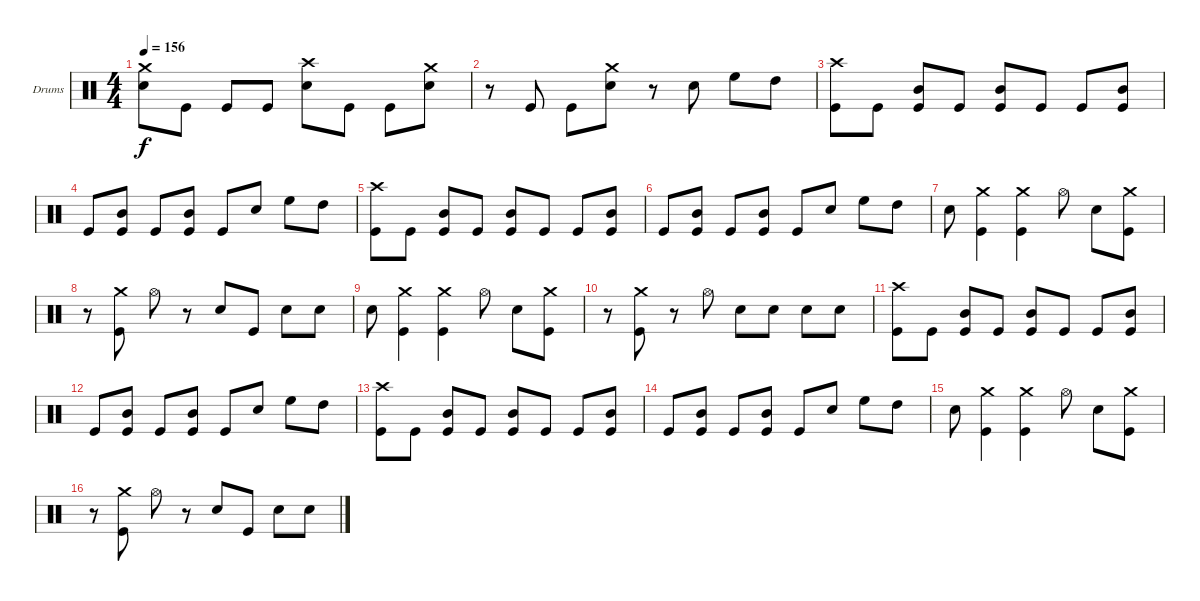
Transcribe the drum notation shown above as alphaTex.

\defaultSystemsLayout 4
\bracketExtendMode groupsimilarinstruments
\firstSystemTrackNameOrientation horizontal
\otherSystemsTrackNameOrientation horizontal
\track ("Anton Kubrak" "Drums") {instrument percussion}
\staff {score}
\articulation defaults
\ts (4 4)
\tempo 156
\clef neutral
\scale
0.333333
\ks c
("Crash medium (hit)" "Snare (hit) 2").8{dy f} "Kick (hit)".8 "Kick (hit)".8 "Kick (hit)".8 ("Crash high (hit)" "Snare (hit) 2").8 "Kick (hit)".8 "Kick (hit)".8 ("Crash medium (hit)" "Snare (hit) 2").8 |
\scale
0.333333 r.8 "Kick (hit)".8 "Kick (hit)".8 ("Crash medium (hit)" "Snare (hit) 2").8 r.8 "Snare (hit) 2".8 "High Floor Tom (hit)".8 "High Tom (hit)".8 |
\scale
0.333333 ("Crash high (hit)" "Kick (hit)").8 "Kick (hit)".8 ("Mid Tom (hit)" "Kick (hit)").8 "Kick (hit)".8 ("Mid Tom (hit)" "Kick (hit)").8 "Kick (hit)".8 "Kick (hit)".8 ("Mid Tom (hit)" "Kick (hit)").8 |
\scale
0.333333 "Kick (hit)".8 ("Mid Tom (hit)" "Kick (hit)").8 "Kick (hit)".8 ("Mid Tom (hit)" "Kick (hit)").8 "Kick (hit)".8 "Snare (hit) 2".8 "High Floor Tom (hit)".8 "High Tom (hit)".8 |
\scale
0.333333 ("Crash high (hit)" "Kick (hit)").8 "Kick (hit)".8 ("Mid Tom (hit)" "Kick (hit)").8 "Kick (hit)".8 ("Mid Tom (hit)" "Kick (hit)").8 "Kick (hit)".8 "Kick (hit)".8 ("Mid Tom (hit)" "Kick (hit)").8 |
\scale
0.333333 "Kick (hit)".8 ("Mid Tom (hit)" "Kick (hit)").8 "Kick (hit)".8 ("Mid Tom (hit)" "Kick (hit)").8 "Kick (hit)".8 "Snare (hit) 2".8 "High Floor Tom (hit)".8 "High Tom (hit)".8 |
\scale
0.333333 "Snare (hit) 2".8 ("Crash medium (hit)" "Kick (hit)").4 ("Crash medium (hit)" "Kick (hit)").4 "Hi-Hat (open)".8 "Snare (hit) 2".8 ("Crash medium (hit)" "Kick (hit)").8 |
\scale
0.333333 r.8 ("Crash medium (hit)" "Kick (hit)").8 "Hi-Hat (open)".8 r.8 "Snare (hit) 2".8 "Kick (hit)".8 "Snare (hit) 2".8 "Snare (hit) 2".8 |
\scale
0.333333 "Snare (hit) 2".8 ("Crash medium (hit)" "Kick (hit)").4 ("Crash medium (hit)" "Kick (hit)").4 "Hi-Hat (open)".8 "Snare (hit) 2".8 ("Crash medium (hit)" "Kick (hit)").8 |
\scale
0.333333 r.8 ("Crash medium (hit)" "Kick (hit)").8 r.8 "Hi-Hat (open)".8 "Snare (hit) 2".8 "Snare (hit) 2".8 "Snare (hit) 2".8 "Snare (hit) 2".8 |
\scale
0.333333 ("Crash high (hit)" "Kick (hit)").8 "Kick (hit)".8 ("Mid Tom (hit)" "Kick (hit)").8 "Kick (hit)".8 ("Mid Tom (hit)" "Kick (hit)").8 "Kick (hit)".8 "Kick (hit)".8 ("Mid Tom (hit)" "Kick (hit)").8 |
\scale
0.333333 "Kick (hit)".8 ("Mid Tom (hit)" "Kick (hit)").8 "Kick (hit)".8 ("Mid Tom (hit)" "Kick (hit)").8 "Kick (hit)".8 "Snare (hit) 2".8 "High Floor Tom (hit)".8 "High Tom (hit)".8 |
\scale
0.333333 ("Crash high (hit)" "Kick (hit)").8 "Kick (hit)".8 ("Mid Tom (hit)" "Kick (hit)").8 "Kick (hit)".8 ("Mid Tom (hit)" "Kick (hit)").8 "Kick (hit)".8 "Kick (hit)".8 ("Mid Tom (hit)" "Kick (hit)").8 |
\scale
0.333333 "Kick (hit)".8 ("Mid Tom (hit)" "Kick (hit)").8 "Kick (hit)".8 ("Mid Tom (hit)" "Kick (hit)").8 "Kick (hit)".8 "Snare (hit) 2".8 "High Floor Tom (hit)".8 "High Tom (hit)".8 |
\scale
0.333333 "Snare (hit) 2".8 ("Crash medium (hit)" "Kick (hit)").4 ("Crash medium (hit)" "Kick (hit)").4 "Hi-Hat (open)".8 "Snare (hit) 2".8 ("Crash medium (hit)" "Kick (hit)").8 |
\scale
0.333333 r.8 ("Crash medium (hit)" "Kick (hit)").8 "Hi-Hat (open)".8 r.8 "Snare (hit) 2".8 "Kick (hit)".8 "Snare (hit) 2".8 "Snare (hit) 2".8
